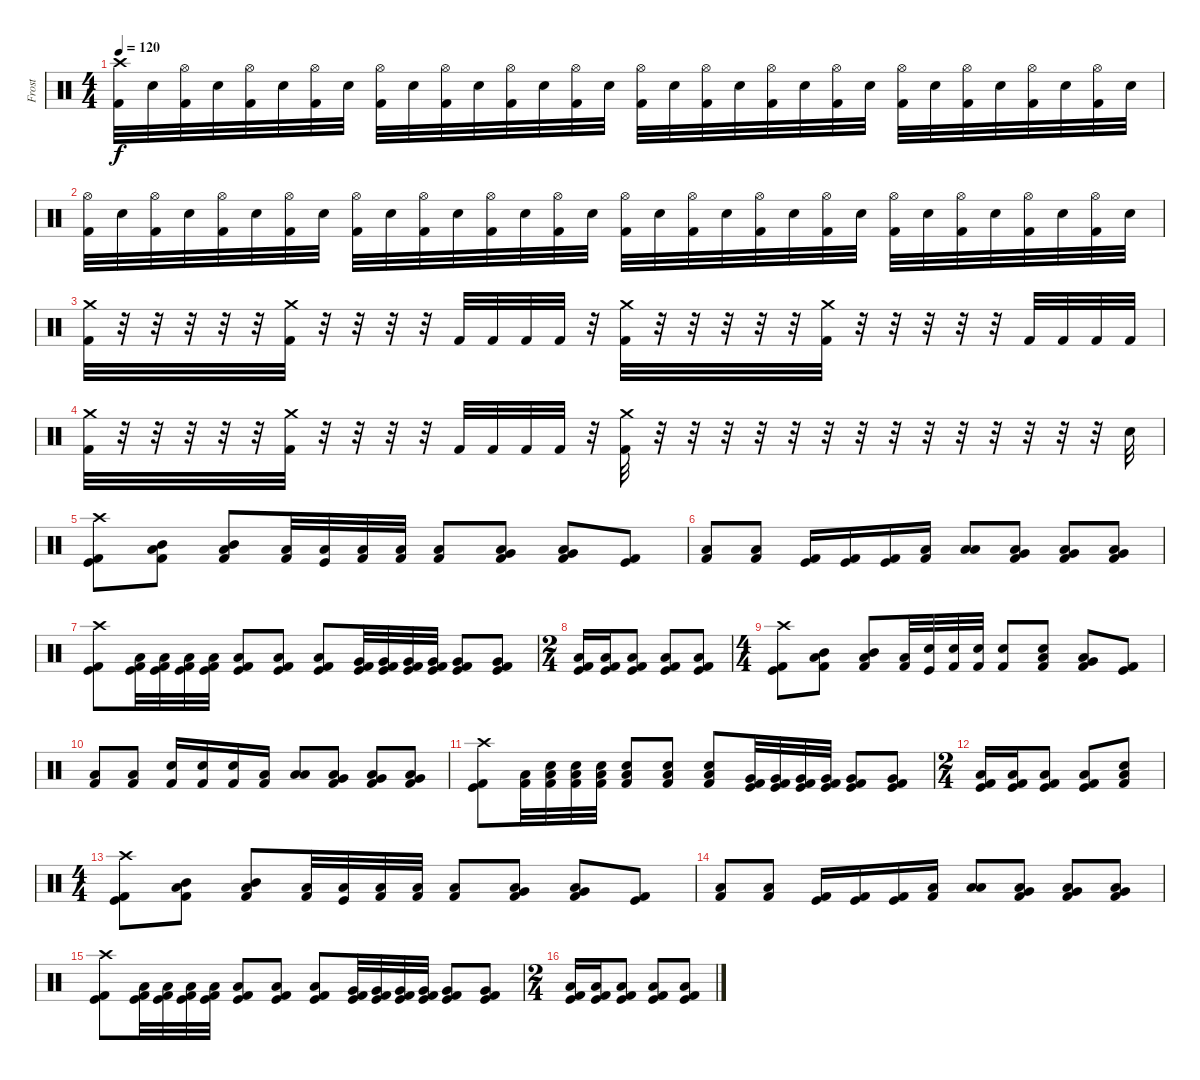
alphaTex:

\track ("Frost" "Frost") {instrument percussion}
\staff {score}
\articulation defaults
\ts (4 4)
\tempo 120
\clef neutral
\ks c
("Crash high (hit)" "Kick (hit) 2").32{dy f} "Snare (hit) 2".32 ("Hi-Hat (open)" "Kick (hit) 2").32 "Snare (hit) 2".32 ("Hi-Hat (open)" "Kick (hit) 2").32 "Snare (hit) 2".32 ("Hi-Hat (open)" "Kick (hit) 2").32 "Snare (hit) 2".32 ("Hi-Hat (open)" "Kick (hit) 2").32 "Snare (hit) 2".32 ("Hi-Hat (open)" "Kick (hit) 2").32 "Snare (hit) 2".32 ("Hi-Hat (open)" "Kick (hit) 2").32 "Snare (hit) 2".32 ("Hi-Hat (open)" "Kick (hit) 2").32 "Snare (hit) 2".32 ("Hi-Hat (open)" "Kick (hit) 2").32 "Snare (hit) 2".32 ("Hi-Hat (open)" "Kick (hit) 2").32 "Snare (hit) 2".32 ("Hi-Hat (open)" "Kick (hit) 2").32 "Snare (hit) 2".32 ("Hi-Hat (open)" "Kick (hit) 2").32 "Snare (hit) 2".32 ("Hi-Hat (open)" "Kick (hit) 2").32 "Snare (hit) 2".32 ("Hi-Hat (open)" "Kick (hit) 2").32 "Snare (hit) 2".32 ("Hi-Hat (open)" "Kick (hit) 2").32 "Snare (hit) 2".32 ("Hi-Hat (open)" "Kick (hit) 2").32 "Snare (hit) 2".32 |
("Hi-Hat (open)" "Kick (hit) 2").32 "Snare (hit) 2".32 ("Hi-Hat (open)" "Kick (hit) 2").32 "Snare (hit) 2".32 ("Hi-Hat (open)" "Kick (hit) 2").32 "Snare (hit) 2".32 ("Hi-Hat (open)" "Kick (hit) 2").32 "Snare (hit) 2".32 ("Hi-Hat (open)" "Kick (hit) 2").32 "Snare (hit) 2".32 ("Hi-Hat (open)" "Kick (hit) 2").32 "Snare (hit) 2".32 ("Hi-Hat (open)" "Kick (hit) 2").32 "Snare (hit) 2".32 ("Hi-Hat (open)" "Kick (hit) 2").32 "Snare (hit) 2".32 ("Hi-Hat (open)" "Kick (hit) 2").32 "Snare (hit) 2".32 ("Hi-Hat (open)" "Kick (hit) 2").32 "Snare (hit) 2".32 ("Hi-Hat (open)" "Kick (hit) 2").32 "Snare (hit) 2".32 ("Hi-Hat (open)" "Kick (hit) 2").32 "Snare (hit) 2".32 ("Hi-Hat (open)" "Kick (hit) 2").32 "Snare (hit) 2".32 ("Hi-Hat (open)" "Kick (hit) 2").32 "Snare (hit) 2".32 ("Hi-Hat (open)" "Kick (hit) 2").32 "Snare (hit) 2".32 ("Hi-Hat (open)" "Kick (hit) 2").32 "Snare (hit) 2".32 |
("Crash medium (hit)" "Kick (hit) 2").32 r.32 r.32 r.32 r.32 r.32 ("Crash medium (hit)" "Kick (hit) 2").32 r.32 r.32 r.32 r.32 "Kick (hit) 2".32 "Kick (hit) 2".32 "Kick (hit) 2".32 "Kick (hit) 2".32 r.32 ("Crash medium (hit)" "Kick (hit) 2").32 r.32 r.32 r.32 r.32 r.32 ("Crash medium (hit)" "Kick (hit) 2").32 r.32 r.32 r.32 r.32 r.32 "Kick (hit) 2".32 "Kick (hit) 2".32 "Kick (hit) 2".32 "Kick (hit) 2".32 |
("Crash medium (hit)" "Kick (hit) 2").32 r.32 r.32 r.32 r.32 r.32 ("Crash medium (hit)" "Kick (hit) 2").32 r.32 r.32 r.32 r.32 "Kick (hit) 2".32 "Kick (hit) 2".32 "Kick (hit) 2".32 "Kick (hit) 2".32 r.32 ("Crash medium (hit)" "Kick (hit) 2").32 r.32 r.32 r.32 r.32 r.32 r.32 r.32 r.32 r.32 r.32 r.32 r.32 r.32 r.32 "Snare (hit)".32 |
("Crash high (hit)" "Kick (hit)" "Kick (hit) 2").8 ("Mid Tom (hit)" "Low Tom (hit)" "Kick (hit) 2").8 ("Mid Tom (hit)" "Low Tom (hit)" "Kick (hit) 2").8 ("Low Tom (hit)" "Kick (hit) 2").32 ("Low Tom (hit)" "Kick (hit)").32 ("Low Tom (hit)" "Kick (hit) 2").32 ("Low Tom (hit)" "Kick (hit) 2").32 ("Low Tom (hit)" "Kick (hit) 2").8 ("Low Tom (hit)" "Very Low Tom (hit)" "Kick (hit) 2").8 ("Low Tom (hit)" "Very Low Tom (hit)" "Kick (hit) 2").8 ("Kick (hit)" "Kick (hit) 2").8 |
("Low Tom (hit)" "Kick (hit) 2").8 ("Low Tom (hit)" "Kick (hit) 2").8 ("Kick (hit)" "Kick (hit) 2").16 ("Kick (hit)" "Kick (hit) 2").16 ("Kick (hit)" "Kick (hit) 2").16 ("Low Tom (hit)" "Kick (hit) 2").16 ("Low Floor Tom (hit)" "Low Tom (hit)").8 ("Very Low Tom (hit)" "Low Floor Tom (hit)" "Kick (hit) 2").8 ("Very Low Tom (hit)" "Low Floor Tom (hit)" "Kick (hit) 2").8 ("Very Low Tom (hit)" "Low Floor Tom (hit)" "Kick (hit) 2").8 |
("Crash high (hit)" "Kick (hit)" "Kick (hit) 2").8 ("Kick (hit)" "Low Tom (hit)" "Kick (hit) 2").32 ("Kick (hit)" "Low Tom (hit)" "Kick (hit) 2").32 ("Kick (hit)" "Low Tom (hit)" "Kick (hit) 2").32 ("Kick (hit)" "Low Tom (hit)" "Kick (hit) 2").32 ("Kick (hit)" "Low Tom (hit)" "Kick (hit) 2").8 ("Kick (hit)" "Low Tom (hit)" "Kick (hit) 2").8 ("Kick (hit)" "Low Tom (hit)" "Kick (hit) 2").8 ("Kick (hit)" "Very Low Tom (hit)" "Kick (hit) 2").32 ("Kick (hit)" "Very Low Tom (hit)" "Kick (hit) 2").32 ("Kick (hit)" "Very Low Tom (hit)" "Kick (hit) 2").32 ("Kick (hit)" "Very Low Tom (hit)" "Kick (hit) 2").32 ("Kick (hit)" "Very Low Tom (hit)" "Kick (hit) 2").8 ("Kick (hit)" "Very Low Tom (hit)" "Kick (hit) 2").8 |
\ts (2 4)
("Kick (hit)" "Low Floor Tom (hit)" "Kick (hit) 2").16 ("Kick (hit)" "Low Floor Tom (hit)" "Kick (hit) 2").16 ("Kick (hit)" "Low Floor Tom (hit)" "Kick (hit) 2").8 ("Kick (hit)" "Low Floor Tom (hit)" "Kick (hit) 2").8 ("Kick (hit)" "Low Floor Tom (hit)" "Kick (hit) 2").8 |
\ts (4 4)
("Crash high (hit)" "Kick (hit)" "Kick (hit) 2").8 ("Mid Tom (hit)" "Low Tom (hit)" "Kick (hit) 2").8 ("Mid Tom (hit)" "Low Tom (hit)" "Kick (hit) 2").8 ("Low Tom (hit)" "Kick (hit) 2").32 ("Electric Snare (hit)" "Kick (hit)").32 ("Electric Snare (hit)" "Kick (hit) 2").32 ("Electric Snare (hit)" "Kick (hit) 2").32 ("Electric Snare (hit)" "Kick (hit) 2").8 ("Low Tom (hit)" "Electric Snare (hit)" "Kick (hit) 2").8 ("Low Tom (hit)" "Very Low Tom (hit)" "Kick (hit) 2").8 ("Kick (hit)" "Kick (hit) 2").8 |
("Low Tom (hit)" "Kick (hit) 2").8 ("Low Tom (hit)" "Kick (hit) 2").8 ("Electric Snare (hit)" "Kick (hit) 2").16 ("Electric Snare (hit)" "Kick (hit) 2").16 ("Electric Snare (hit)" "Kick (hit) 2").16 ("Low Tom (hit)" "Kick (hit) 2").16 ("Low Floor Tom (hit)" "Low Tom (hit)").8 ("Very Low Tom (hit)" "Low Floor Tom (hit)" "Kick (hit) 2").8 ("Very Low Tom (hit)" "Low Floor Tom (hit)" "Kick (hit) 2").8 ("Very Low Tom (hit)" "Low Floor Tom (hit)" "Kick (hit) 2").8 |
("Crash high (hit)" "Kick (hit)" "Kick (hit) 2").8 ("Low Tom (hit)" "Kick (hit) 2").32 ("Electric Snare (hit)" "Low Tom (hit)" "Kick (hit) 2").32 ("Electric Snare (hit)" "Low Tom (hit)" "Kick (hit) 2").32 ("Electric Snare (hit)" "Low Tom (hit)" "Kick (hit) 2").32 ("Electric Snare (hit)" "Low Tom (hit)" "Kick (hit) 2").8 ("Electric Snare (hit)" "Low Tom (hit)" "Kick (hit) 2").8 ("Electric Snare (hit)" "Low Tom (hit)" "Kick (hit) 2").8 ("Kick (hit)" "Very Low Tom (hit)" "Kick (hit) 2").32 ("Kick (hit)" "Very Low Tom (hit)" "Kick (hit) 2").32 ("Kick (hit)" "Very Low Tom (hit)" "Kick (hit) 2").32 ("Kick (hit)" "Very Low Tom (hit)" "Kick (hit) 2").32 ("Kick (hit)" "Very Low Tom (hit)" "Kick (hit) 2").8 ("Kick (hit)" "Very Low Tom (hit)" "Kick (hit) 2").8 |
\ts (2 4)
("Kick (hit)" "Low Floor Tom (hit)" "Kick (hit) 2").16 ("Kick (hit)" "Low Floor Tom (hit)" "Kick (hit) 2").16 ("Kick (hit)" "Low Floor Tom (hit)" "Kick (hit) 2").8 ("Kick (hit)" "Low Floor Tom (hit)" "Kick (hit) 2").8 ("Electric Snare (hit)" "Low Floor Tom (hit)" "Kick (hit) 2").8 |
\ts (4 4)
("Crash high (hit)" "Kick (hit)" "Kick (hit) 2").8 ("Mid Tom (hit)" "Low Tom (hit)" "Kick (hit) 2").8 ("Mid Tom (hit)" "Low Tom (hit)" "Kick (hit) 2").8 ("Low Tom (hit)" "Kick (hit) 2").32 ("Low Tom (hit)" "Kick (hit)").32 ("Low Tom (hit)" "Kick (hit) 2").32 ("Low Tom (hit)" "Kick (hit) 2").32 ("Low Tom (hit)" "Kick (hit) 2").8 ("Low Tom (hit)" "Very Low Tom (hit)" "Kick (hit) 2").8 ("Low Tom (hit)" "Very Low Tom (hit)" "Kick (hit) 2").8 ("Kick (hit)" "Kick (hit) 2").8 |
("Low Tom (hit)" "Kick (hit) 2").8 ("Low Tom (hit)" "Kick (hit) 2").8 ("Kick (hit)" "Kick (hit) 2").16 ("Kick (hit)" "Kick (hit) 2").16 ("Kick (hit)" "Kick (hit) 2").16 ("Low Tom (hit)" "Kick (hit) 2").16 ("Low Floor Tom (hit)" "Low Tom (hit)").8 ("Very Low Tom (hit)" "Low Floor Tom (hit)" "Kick (hit) 2").8 ("Very Low Tom (hit)" "Low Floor Tom (hit)" "Kick (hit) 2").8 ("Very Low Tom (hit)" "Low Floor Tom (hit)" "Kick (hit) 2").8 |
("Crash high (hit)" "Kick (hit)" "Kick (hit) 2").8 ("Kick (hit)" "Low Tom (hit)" "Kick (hit) 2").32 ("Kick (hit)" "Low Tom (hit)" "Kick (hit) 2").32 ("Kick (hit)" "Low Tom (hit)" "Kick (hit) 2").32 ("Kick (hit)" "Low Tom (hit)" "Kick (hit) 2").32 ("Kick (hit)" "Low Tom (hit)" "Kick (hit) 2").8 ("Kick (hit)" "Low Tom (hit)" "Kick (hit) 2").8 ("Kick (hit)" "Low Tom (hit)" "Kick (hit) 2").8 ("Kick (hit)" "Very Low Tom (hit)" "Kick (hit) 2").32 ("Kick (hit)" "Very Low Tom (hit)" "Kick (hit) 2").32 ("Kick (hit)" "Very Low Tom (hit)" "Kick (hit) 2").32 ("Kick (hit)" "Very Low Tom (hit)" "Kick (hit) 2").32 ("Kick (hit)" "Very Low Tom (hit)" "Kick (hit) 2").8 ("Kick (hit)" "Very Low Tom (hit)" "Kick (hit) 2").8 |
\ts (2 4)
("Kick (hit)" "Low Floor Tom (hit)" "Kick (hit) 2").16 ("Kick (hit)" "Low Floor Tom (hit)" "Kick (hit) 2").16 ("Kick (hit)" "Low Floor Tom (hit)" "Kick (hit) 2").8 ("Kick (hit)" "Low Floor Tom (hit)" "Kick (hit) 2").8 ("Kick (hit)" "Low Floor Tom (hit)" "Kick (hit) 2").8
